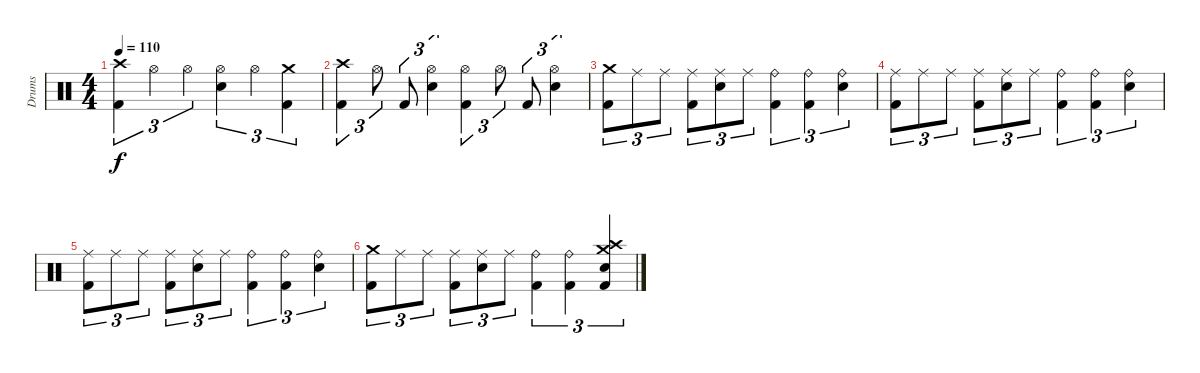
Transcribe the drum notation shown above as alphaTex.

\track ("Drums" "Drums") {instrument percussion}
\staff {score}
\articulation defaults
\ts (4 4)
\tempo 110
\clef neutral
\ks c
("Kick (hit) 2" "Crash high (hit)").4{tu (3 2) dy f} "Hi-Hat (open)".4{tu (3 2)} "Hi-Hat (open)".4{tu (3 2)} ("Snare (hit) 2" "Hi-Hat (open)").4{tu (3 2)} "Hi-Hat (open)".4{tu (3 2)} ("Kick (hit) 2" "Crash medium (hit)").4{tu (3 2)} |
("Kick (hit) 2" "Crash high (hit)").4{tu (3 2)} "Hi-Hat (open)".8{tu (3 2)} "Kick (hit) 2".8{tu (3 2)} ("Electric Snare (hit)" "Hi-Hat (open)").4{tu (3 2)} ("Kick (hit) 2" "Hi-Hat (open)").4{tu (3 2)} "Hi-Hat (open)".8{tu (3 2)} "Kick (hit) 2".8{tu (3 2)} ("Electric Snare (hit)" "Hi-Hat (open)").4{tu (3 2)} |
("Kick (hit) 2" "Crash medium (hit)").8{tu (3 2) volume 0} "Ride (middle)".8{tu (3 2)} "Ride (middle)".8{tu (3 2)} ("Kick (hit) 2" "Ride (middle)").8{tu (3 2)} ("Electric Snare (hit)" "Ride (middle)").8{tu (3 2)} "Ride (middle)".8{tu (3 2)} ("Kick (hit) 2" "Ride (bell)").4{tu (3 2)} ("Kick (hit) 2" "Ride (bell)").4{tu (3 2)} ("Electric Snare (hit)" "Ride (bell)").4{tu (3 2)} |
("Kick (hit) 2" "Ride (middle)").8{tu (3 2)} "Ride (middle)".8{tu (3 2)} "Ride (middle)".8{tu (3 2)} ("Kick (hit) 2" "Ride (middle)").8{tu (3 2)} ("Electric Snare (hit)" "Ride (middle)").8{tu (3 2)} "Ride (middle)".8{tu (3 2)} ("Kick (hit) 2" "Ride (bell)").4{tu (3 2)} ("Kick (hit) 2" "Ride (bell)").4{tu (3 2)} ("Electric Snare (hit)" "Ride (bell)").4{tu (3 2)} |
("Kick (hit) 2" "Ride (middle)").8{tu (3 2)} "Ride (middle)".8{tu (3 2)} "Ride (middle)".8{tu (3 2)} ("Kick (hit) 2" "Ride (middle)").8{tu (3 2)} ("Electric Snare (hit)" "Ride (middle)").8{tu (3 2)} "Ride (middle)".8{tu (3 2)} ("Kick (hit) 2" "Ride (bell)").4{tu (3 2)} ("Kick (hit) 2" "Ride (bell)").4{tu (3 2)} ("Electric Snare (hit)" "Ride (bell)").4{tu (3 2)} |
("Kick (hit) 2" "Crash medium (hit)").8{tu (3 2)} "Ride (middle)".8{tu (3 2)} "Ride (middle)".8{tu (3 2)} ("Kick (hit) 2" "Ride (middle)").8{tu (3 2)} ("Electric Snare (hit)" "Ride (middle)").8{tu (3 2)} "Ride (middle)".8{tu (3 2)} ("Kick (hit) 2" "Ride (bell)").4{tu (3 2)} ("Kick (hit) 2" "Ride (bell)").4{tu (3 2)} ("Kick (hit) 2" "Electric Snare (hit)" "Crash high (hit)" "Crash medium (hit)").4{tu (3 2)}
